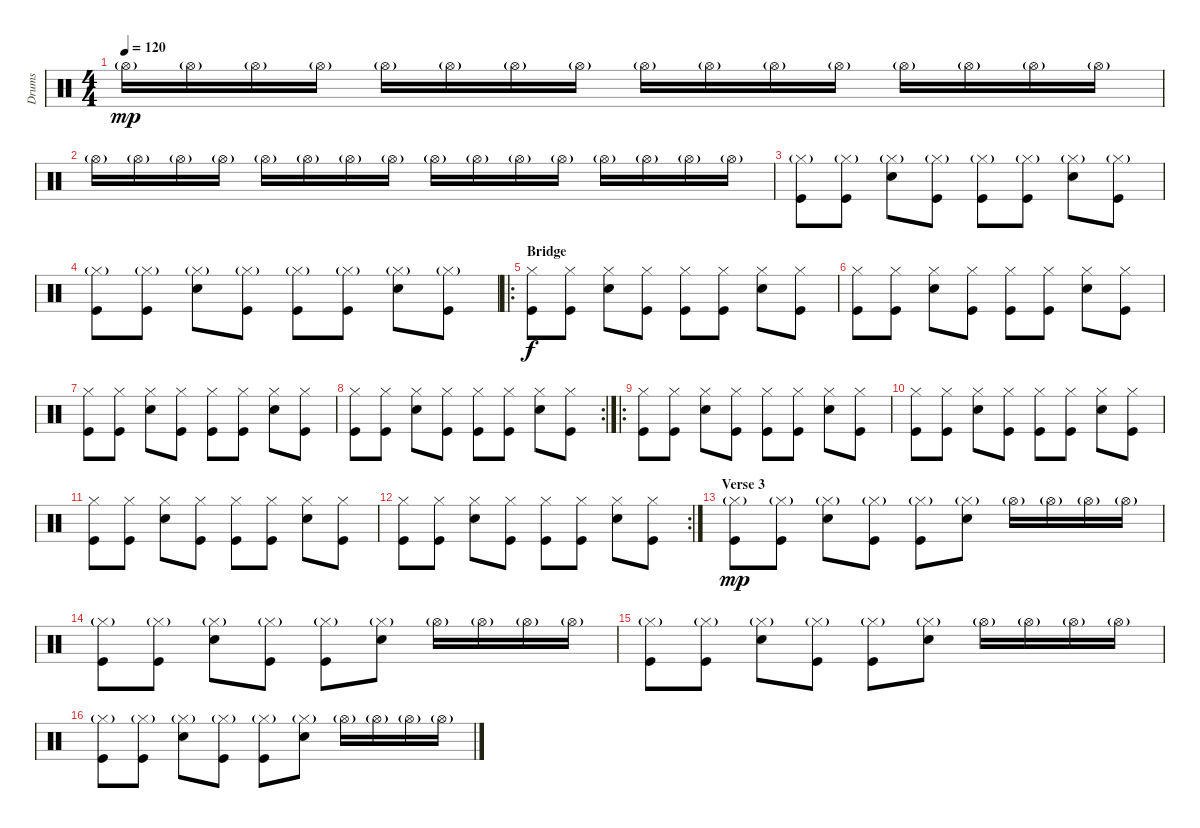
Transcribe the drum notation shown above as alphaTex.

\track ("Drums" "Drums") {instrument percussion}
\staff {score}
\articulation defaults
\ts (4 4)
\tempo 120
\clef neutral
\ks c "Hi-Hat (open)"{g}.16{dy mp} "Hi-Hat (open)"{g}.16 "Hi-Hat (open)"{g}.16 "Hi-Hat (open)"{g}.16 "Hi-Hat (open)"{g}.16 "Hi-Hat (open)"{g}.16 "Hi-Hat (open)"{g}.16 "Hi-Hat (open)"{g}.16 "Hi-Hat (open)"{g}.16 "Hi-Hat (open)"{g}.16 "Hi-Hat (open)"{g}.16 "Hi-Hat (open)"{g}.16 "Hi-Hat (open)"{g}.16 "Hi-Hat (open)"{g}.16 "Hi-Hat (open)"{g}.16 "Hi-Hat (open)"{g}.16
|
"Hi-Hat (open)"{g}.16 "Hi-Hat (open)"{g}.16 "Hi-Hat (open)"{g}.16 "Hi-Hat (open)"{g}.16 "Hi-Hat (open)"{g}.16 "Hi-Hat (open)"{g}.16 "Hi-Hat (open)"{g}.16 "Hi-Hat (open)"{g}.16 "Hi-Hat (open)"{g}.16 "Hi-Hat (open)"{g}.16 "Hi-Hat (open)"{g}.16 "Hi-Hat (open)"{g}.16 "Hi-Hat (open)"{g}.16 "Hi-Hat (open)"{g}.16 "Hi-Hat (open)"{g}.16 "Hi-Hat (open)"{g}.16 |
("Hi-Hat (closed)"{g} "Kick (hit)").8 ("Hi-Hat (closed)"{g} "Kick (hit)").8 ("Hi-Hat (closed)"{g} "Electric Snare (hit)").8 ("Hi-Hat (closed)"{g} "Kick (hit)").8 ("Hi-Hat (closed)"{g} "Kick (hit)").8 ("Hi-Hat (closed)"{g} "Kick (hit)").8 ("Hi-Hat (closed)"{g} "Electric Snare (hit)").8 ("Hi-Hat (closed)"{g} "Kick (hit)").8 |
("Hi-Hat (closed)"{g} "Kick (hit)").8 ("Hi-Hat (closed)"{g} "Kick (hit)").8 ("Hi-Hat (closed)"{g} "Electric Snare (hit)").8 ("Hi-Hat (closed)"{g} "Kick (hit)").8 ("Hi-Hat (closed)"{g} "Kick (hit)").8 ("Hi-Hat (closed)"{g} "Kick (hit)").8 ("Hi-Hat (closed)"{g} "Electric Snare (hit)").8 ("Hi-Hat (closed)"{g} "Kick (hit)").8 |
\ro
\section ("" "Bridge")
("Hi-Hat (closed)" "Kick (hit)").8{dy f} ("Hi-Hat (closed)" "Kick (hit)").8 ("Hi-Hat (closed)" "Electric Snare (hit)").8 ("Hi-Hat (closed)" "Kick (hit)").8 ("Hi-Hat (closed)" "Kick (hit)").8 ("Hi-Hat (closed)" "Kick (hit)").8 ("Hi-Hat (closed)" "Electric Snare (hit)").8 ("Hi-Hat (closed)" "Kick (hit)").8 |
("Hi-Hat (closed)" "Kick (hit)").8 ("Hi-Hat (closed)" "Kick (hit)").8 ("Hi-Hat (closed)" "Electric Snare (hit)").8 ("Hi-Hat (closed)" "Kick (hit)").8 ("Hi-Hat (closed)" "Kick (hit)").8 ("Hi-Hat (closed)" "Kick (hit)").8 ("Hi-Hat (closed)" "Electric Snare (hit)").8 ("Hi-Hat (closed)" "Kick (hit)").8 |
("Hi-Hat (closed)" "Kick (hit)").8 ("Hi-Hat (closed)" "Kick (hit)").8 ("Hi-Hat (closed)" "Electric Snare (hit)").8 ("Hi-Hat (closed)" "Kick (hit)").8 ("Hi-Hat (closed)" "Kick (hit)").8 ("Hi-Hat (closed)" "Kick (hit)").8 ("Hi-Hat (closed)" "Electric Snare (hit)").8 ("Hi-Hat (closed)" "Kick (hit)").8 |
\rc 2
("Hi-Hat (closed)" "Kick (hit)").8 ("Hi-Hat (closed)" "Kick (hit)").8 ("Hi-Hat (closed)" "Electric Snare (hit)").8 ("Hi-Hat (closed)" "Kick (hit)").8 ("Hi-Hat (closed)" "Kick (hit)").8 ("Hi-Hat (closed)" "Kick (hit)").8 ("Hi-Hat (closed)" "Electric Snare (hit)").8 ("Hi-Hat (closed)" "Kick (hit)").8 |
\ro
("Hi-Hat (closed)" "Kick (hit)").8 ("Hi-Hat (closed)" "Kick (hit)").8 ("Hi-Hat (closed)" "Electric Snare (hit)").8 ("Hi-Hat (closed)" "Kick (hit)").8 ("Hi-Hat (closed)" "Kick (hit)").8 ("Hi-Hat (closed)" "Kick (hit)").8 ("Hi-Hat (closed)" "Electric Snare (hit)").8 ("Hi-Hat (closed)" "Kick (hit)").8 |
("Hi-Hat (closed)" "Kick (hit)").8 ("Hi-Hat (closed)" "Kick (hit)").8 ("Hi-Hat (closed)" "Electric Snare (hit)").8 ("Hi-Hat (closed)" "Kick (hit)").8 ("Hi-Hat (closed)" "Kick (hit)").8 ("Hi-Hat (closed)" "Kick (hit)").8 ("Hi-Hat (closed)" "Electric Snare (hit)").8 ("Hi-Hat (closed)" "Kick (hit)").8 |
("Hi-Hat (closed)" "Kick (hit)").8 ("Hi-Hat (closed)" "Kick (hit)").8 ("Hi-Hat (closed)" "Electric Snare (hit)").8 ("Hi-Hat (closed)" "Kick (hit)").8 ("Hi-Hat (closed)" "Kick (hit)").8 ("Hi-Hat (closed)" "Kick (hit)").8 ("Hi-Hat (closed)" "Electric Snare (hit)").8 ("Hi-Hat (closed)" "Kick (hit)").8 |
\rc 2
("Hi-Hat (closed)" "Kick (hit)").8 ("Hi-Hat (closed)" "Kick (hit)").8 ("Hi-Hat (closed)" "Electric Snare (hit)").8 ("Hi-Hat (closed)" "Kick (hit)").8 ("Hi-Hat (closed)" "Kick (hit)").8 ("Hi-Hat (closed)" "Kick (hit)").8 ("Hi-Hat (closed)" "Electric Snare (hit)").8 ("Hi-Hat (closed)" "Kick (hit)").8 |
\section ("" "Verse 3")
("Hi-Hat (closed)"{g} "Kick (hit)").8{dy mp} ("Hi-Hat (closed)"{g} "Kick (hit)").8 ("Hi-Hat (closed)"{g} "Electric Snare (hit)").8 ("Hi-Hat (closed)"{g} "Kick (hit)").8 ("Hi-Hat (closed)"{g} "Kick (hit)").8 ("Hi-Hat (closed)"{g} "Electric Snare (hit)").8 "Hi-Hat (open)"{g}.16 "Hi-Hat (open)"{g}.16 "Hi-Hat (open)"{g}.16 "Hi-Hat (open)"{g}.16 |
("Hi-Hat (closed)"{g} "Kick (hit)").8 ("Hi-Hat (closed)"{g} "Kick (hit)").8 ("Hi-Hat (closed)"{g} "Electric Snare (hit)").8 ("Hi-Hat (closed)"{g} "Kick (hit)").8 ("Hi-Hat (closed)"{g} "Kick (hit)").8 ("Hi-Hat (closed)"{g} "Electric Snare (hit)").8 "Hi-Hat (open)"{g}.16 "Hi-Hat (open)"{g}.16 "Hi-Hat (open)"{g}.16 "Hi-Hat (open)"{g}.16 |
("Hi-Hat (closed)"{g} "Kick (hit)").8 ("Hi-Hat (closed)"{g} "Kick (hit)").8 ("Hi-Hat (closed)"{g} "Electric Snare (hit)").8 ("Hi-Hat (closed)"{g} "Kick (hit)").8 ("Hi-Hat (closed)"{g} "Kick (hit)").8 ("Hi-Hat (closed)"{g} "Electric Snare (hit)").8 "Hi-Hat (open)"{g}.16 "Hi-Hat (open)"{g}.16 "Hi-Hat (open)"{g}.16 "Hi-Hat (open)"{g}.16 |
("Hi-Hat (closed)"{g} "Kick (hit)").8 ("Hi-Hat (closed)"{g} "Kick (hit)").8 ("Hi-Hat (closed)"{g} "Electric Snare (hit)").8 ("Hi-Hat (closed)"{g} "Kick (hit)").8 ("Hi-Hat (closed)"{g} "Kick (hit)").8 ("Hi-Hat (closed)"{g} "Electric Snare (hit)").8 "Hi-Hat (open)"{g}.16 "Hi-Hat (open)"{g}.16 "Hi-Hat (open)"{g}.16 "Hi-Hat (open)"{g}.16
